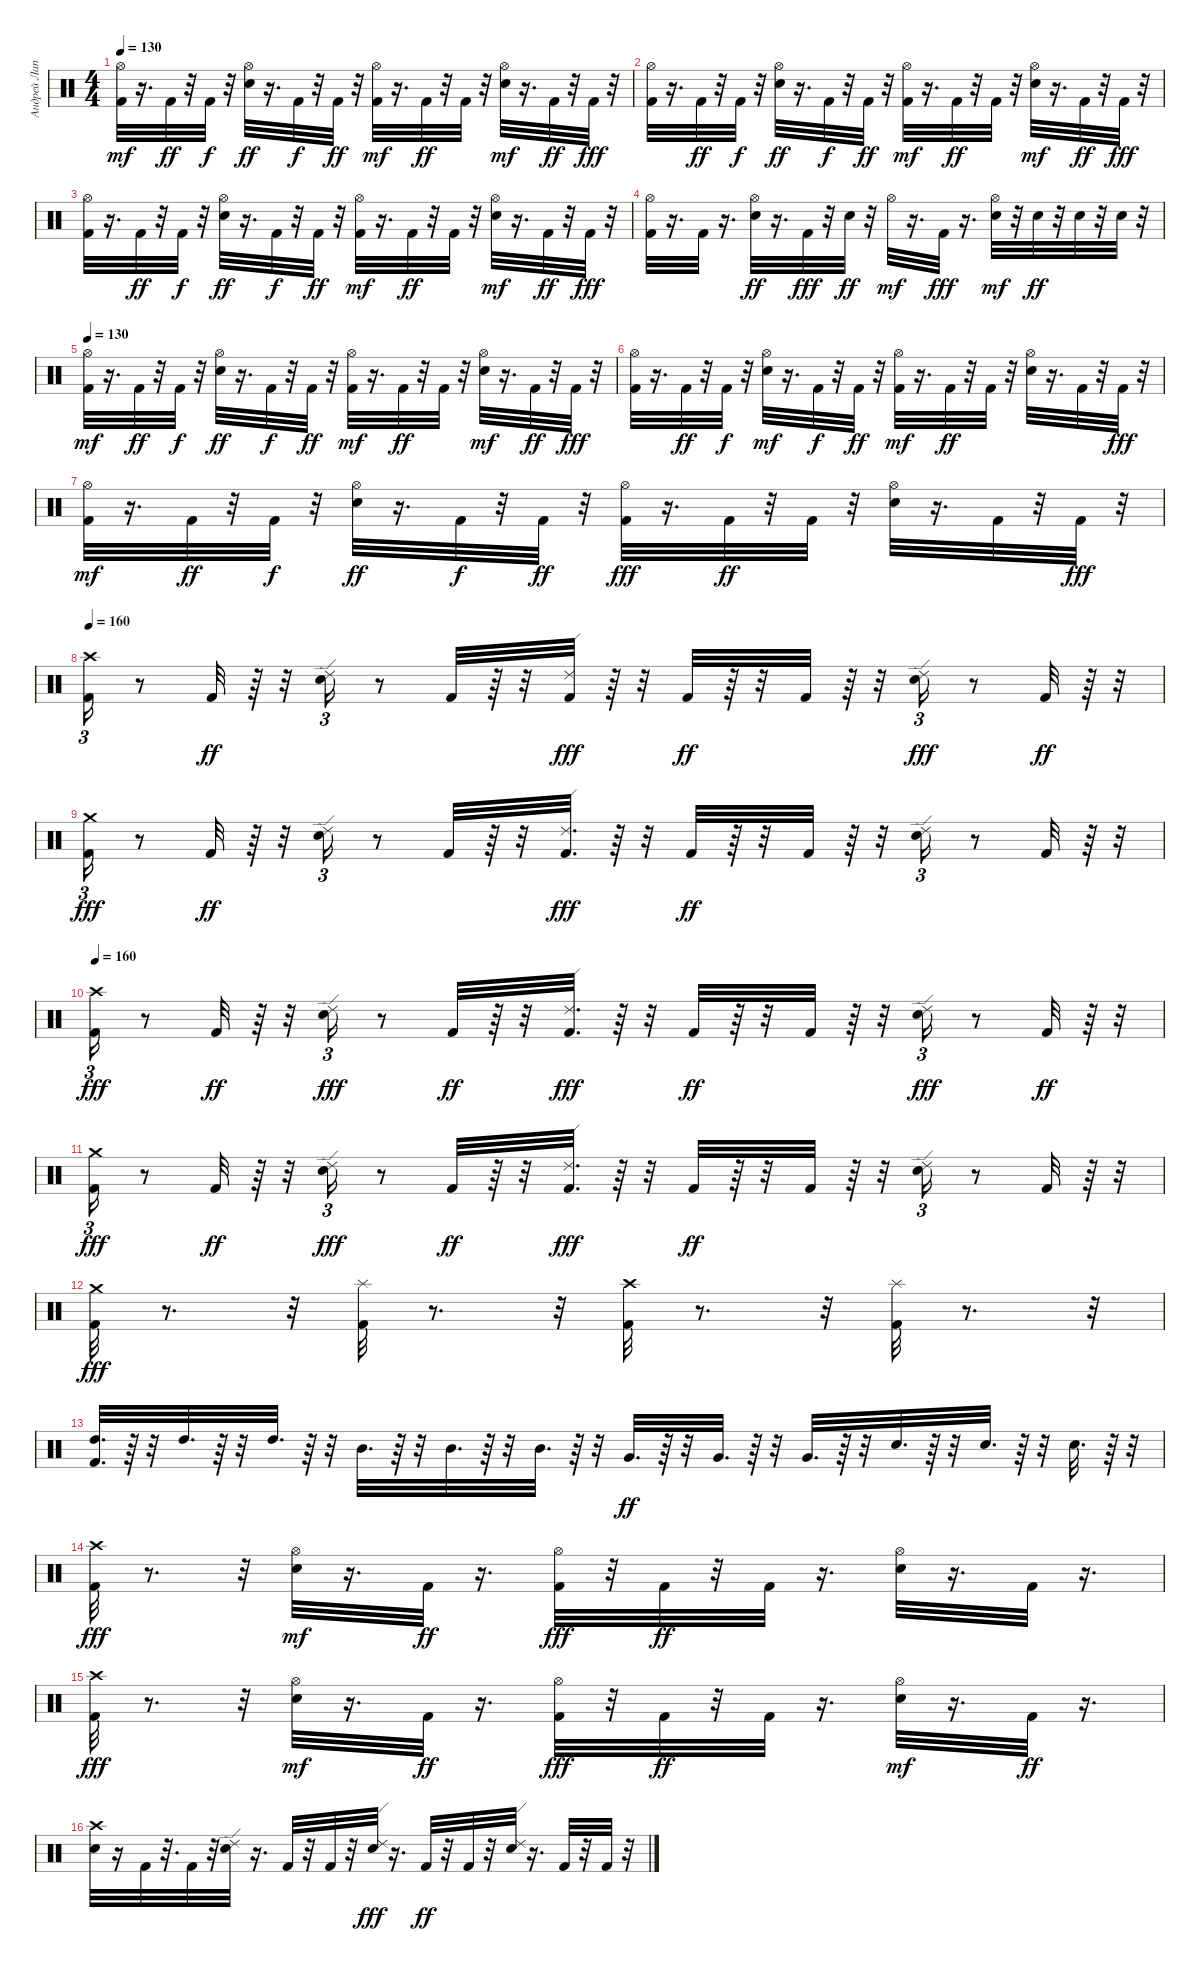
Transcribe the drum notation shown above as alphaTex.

\track ("Андрей Лаптев" "Андрей Лап") {instrument percussion}
\staff {score}
\articulation defaults
\ts (4 4)
\tempo 130
\clef neutral
\ks c
("Kick (hit) 2" "Hi-Hat (open)").32{dy mf} r.16{d} "Kick (hit) 2".32{dy ff} r.32 "Kick (hit) 2".32{dy f} r.32 ("Hi-Hat (open)" "Electric Snare (hit)").32{dy ff} r.16{d} "Kick (hit) 2".32{dy f} r.32 "Kick (hit) 2".32{dy ff} r.32 ("Kick (hit) 2" "Hi-Hat (open)").32{dy mf} r.16{d} "Kick (hit) 2".32{dy ff} r.32 "Kick (hit) 2".32 r.32 ("Electric Snare (hit)" "Hi-Hat (open)").32{dy mf} r.16{d} "Kick (hit) 2".32{dy ff} r.32 "Kick (hit) 2".32{dy fff} r.32 |
("Hi-Hat (open)" "Kick (hit) 2").32 r.16{d} "Kick (hit) 2".32{dy ff} r.32 "Kick (hit) 2".32{dy f} r.32 ("Hi-Hat (open)" "Electric Snare (hit)").32{dy ff} r.16{d} "Kick (hit) 2".32{dy f} r.32 "Kick (hit) 2".32{dy ff} r.32 ("Kick (hit) 2" "Hi-Hat (open)").32{dy mf} r.16{d} "Kick (hit) 2".32{dy ff} r.32 "Kick (hit) 2".32 r.32 ("Electric Snare (hit)" "Hi-Hat (open)").32{dy mf} r.16{d} "Kick (hit) 2".32{dy ff} r.32 "Kick (hit) 2".32{dy fff} r.32 |
("Hi-Hat (open)" "Kick (hit) 2").32 r.16{d} "Kick (hit) 2".32{dy ff} r.32 "Kick (hit) 2".32{dy f} r.32 ("Hi-Hat (open)" "Electric Snare (hit)").32{dy ff} r.16{d} "Kick (hit) 2".32{dy f} r.32 "Kick (hit) 2".32{dy ff} r.32 ("Kick (hit) 2" "Hi-Hat (open)").32{dy mf} r.16{d} "Kick (hit) 2".32{dy ff} r.32 "Kick (hit) 2".32 r.32 ("Electric Snare (hit)" "Hi-Hat (open)").32{dy mf} r.16{d} "Kick (hit) 2".32{dy ff} r.32 "Kick (hit) 2".32{dy fff} r.32 |
("Hi-Hat (open)" "Kick (hit) 2").32 r.16{d} "Kick (hit) 2".32 r.16{d} ("Hi-Hat (open)" "Electric Snare (hit)").32{dy ff} r.16{d} "Kick (hit) 2".32{dy fff} r.32 "Electric Snare (hit)".32{dy ff} r.32 "Hi-Hat (open)".32{dy mf} r.16{d} "Kick (hit) 2".32{dy fff} r.16{d} ("Electric Snare (hit)" "Hi-Hat (open)").32{dy mf} r.32 "Electric Snare (hit)".32{dy ff} r.32 "Electric Snare (hit)".32 r.32 "Electric Snare (hit)".32 r.32 |
\tempo 130
("Kick (hit) 2" "Hi-Hat (open)").32{dy mf} r.16{d} "Kick (hit) 2".32{dy ff} r.32 "Kick (hit) 2".32{dy f} r.32 ("Hi-Hat (open)" "Electric Snare (hit)").32{dy ff} r.16{d} "Kick (hit) 2".32{dy f} r.32 "Kick (hit) 2".32{dy ff} r.32 ("Kick (hit) 2" "Hi-Hat (open)").32{dy mf} r.16{d} "Kick (hit) 2".32{dy ff} r.32 "Kick (hit) 2".32 r.32 ("Electric Snare (hit)" "Hi-Hat (open)").32{dy mf} r.16{d} "Kick (hit) 2".32{dy ff} r.32 "Kick (hit) 2".32{dy fff} r.32 |
("Hi-Hat (open)" "Kick (hit) 2").32 r.16{d} "Kick (hit) 2".32{dy ff} r.32 "Kick (hit) 2".32{dy f} r.32 ("Electric Snare (hit)" "Hi-Hat (open)").32{dy mf} r.16{d} "Kick (hit) 2".32{dy f} r.32 "Kick (hit) 2".32{dy ff} r.32 ("Kick (hit) 2" "Hi-Hat (open)").32{dy mf} r.16{d} "Kick (hit) 2".32{dy ff} r.32 "Kick (hit) 2".32 r.32 ("Hi-Hat (open)" "Electric Snare (hit)").32 r.16{d} "Kick (hit) 2".32 r.32 "Kick (hit) 2".32{dy fff} r.32 |
("Kick (hit) 2" "Hi-Hat (open)").32{dy mf} r.16{d} "Kick (hit) 2".32{dy ff} r.32 "Kick (hit) 2".32{dy f} r.32 ("Hi-Hat (open)" "Electric Snare (hit)").32{dy ff} r.16{d} "Kick (hit) 2".32{dy f} r.32 "Kick (hit) 2".32{dy ff} r.32 ("Hi-Hat (open)" "Kick (hit) 2").32{dy fff} r.16{d} "Kick (hit) 2".32{dy ff} r.32 "Kick (hit) 2".32 r.32 ("Hi-Hat (open)" "Electric Snare (hit)").32 r.16{d} "Kick (hit) 2".32 r.32 "Kick (hit) 2".32{dy fff} r.32 |
\tempo 160
("Kick (hit) 2" "Crash high (hit)").16{tu (3 2)} r.8 "Kick (hit) 2".32{dy ff} r.64 r.32 ("Ride (edge) 2" "Electric Snare (hit)").16{tu (3 2)} r.8 "Kick (hit) 2".32 r.64 r.32 ("Kick (hit) 2" "Ride (edge) 2").32{dy fff} r.64 r.32 "Kick (hit) 2".32{dy ff} r.64 r.32 "Kick (hit) 2".32 r.64 r.32 ("Electric Snare (hit)" "Ride (edge) 2").16{tu (3 2) dy fff} r.8 "Kick (hit) 2".32{dy ff} r.64 r.32 |
("Crash medium (hit)" "Kick (hit) 2").16{tu (3 2) dy fff} r.8 "Kick (hit) 2".32{dy ff} r.64 r.32 ("Ride (edge) 2" "Electric Snare (hit)").16{tu (3 2)} r.8 "Kick (hit) 2".32 r.64 r.32 ("Ride (edge) 2" "Kick (hit) 2").32{d dy fff} r.64 r.32 "Kick (hit) 2".32{dy ff} r.64 r.32 "Kick (hit) 2".32 r.64 r.32 ("Ride (edge) 2" "Electric Snare (hit)").16{tu (3 2)} r.8 "Kick (hit) 2".32 r.64 r.32 |
\tempo 160
("Crash high (hit)" "Kick (hit) 2").16{tu (3 2) dy fff} r.8 "Kick (hit) 2".32{dy ff} r.64 r.32 ("Electric Snare (hit)" "Ride (edge) 2").16{tu (3 2) dy fff} r.8 "Kick (hit) 2".32{dy ff} r.64 r.32 ("Ride (edge) 2" "Kick (hit) 2").32{d dy fff} r.64 r.32 "Kick (hit) 2".32{dy ff} r.64 r.32 "Kick (hit) 2".32 r.64 r.32 ("Electric Snare (hit)" "Ride (edge) 2").16{tu (3 2) dy fff} r.8 "Kick (hit) 2".32{dy ff} r.64 r.32 |
("Crash medium (hit)" "Kick (hit) 2").16{tu (3 2) dy fff} r.8 "Kick (hit) 2".32{dy ff} r.64 r.32 ("Electric Snare (hit)" "Ride (edge) 2").16{tu (3 2) dy fff} r.8 "Kick (hit) 2".32{dy ff} r.64 r.32 ("Ride (edge) 2" "Kick (hit) 2").32{d dy fff} r.64 r.32 "Kick (hit) 2".32{dy ff} r.64 r.32 "Kick (hit) 2".32 r.64 r.32 ("Ride (edge) 2" "Electric Snare (hit)").16{tu (3 2)} r.8 "Kick (hit) 2".32 r.64 r.32 |
("Kick (hit) 2" "Crash medium (hit)").32{dy fff} r.8{d} r.32 ("Splash (hit)" "Kick (hit) 2").32 r.8{d} r.32 ("Kick (hit) 2" "Crash high (hit)").32 r.8{d} r.32 ("Splash (hit)" "Kick (hit) 2").32 r.8{d} r.32 |
("High Tom (hit)" "Kick (hit) 2").32{d} r.64 r.32 "High Tom (hit)".32{d} r.64 r.32 "High Tom (hit)".32{d} r.64 r.32 "Mid Tom (hit)".32{d} r.64 r.32 "Mid Tom (hit)".32{d} r.64 r.32 "Mid Tom (hit)".32{d} r.64 r.32 "Very Low Tom (hit)".32{d dy ff} r.64 r.32 "Very Low Tom (hit)".32{d} r.64 r.32 "Very Low Tom (hit)".32{d} r.64 r.32 "Electric Snare (hit)".32{d} r.64 r.32 "Electric Snare (hit)".32{d} r.64 r.32 "Electric Snare (hit)".32{d} r.64 r.32 |
("Crash high (hit)" "Kick (hit) 2").32{dy fff} r.8{d} r.32 ("Electric Snare (hit)" "Hi-Hat (open)").32{dy mf} r.16{d} "Kick (hit) 2".32{dy ff} r.16{d} ("Hi-Hat (open)" "Kick (hit) 2").32{dy fff} r.32 "Kick (hit) 2".32{dy ff} r.32 "Kick (hit) 2".32 r.16{d} ("Hi-Hat (open)" "Electric Snare (hit)").32 r.16{d} "Kick (hit) 2".32 r.16{d} |
("Crash high (hit)" "Kick (hit) 2").32{dy fff} r.8{d} r.32 ("Electric Snare (hit)" "Hi-Hat (open)").32{dy mf} r.16{d} "Kick (hit) 2".32{dy ff} r.16{d} ("Hi-Hat (open)" "Kick (hit) 2").32{dy fff} r.32 "Kick (hit) 2".32{dy ff} r.32 "Kick (hit) 2".32 r.16{d} ("Electric Snare (hit)" "Hi-Hat (open)").32{dy mf} r.16{d} "Kick (hit) 2".32{dy ff} r.16{d} |
("Electric Snare (hit)" "Crash high (hit)").32 r.16 "Kick (hit) 2".32 r.32{d} "Kick (hit) 2".32 r.32 ("Ride (edge) 2" "Electric Snare (hit)").32 r.16{d} "Kick (hit) 2".32 r.32 "Kick (hit) 2".32 r.32 ("Electric Snare (hit)" "Ride (edge) 2").32{dy fff} r.16{d} "Kick (hit) 2".32{dy ff} r.32 "Kick (hit) 2".32 r.32 ("Ride (edge) 2" "Electric Snare (hit)").32 r.16{d} "Kick (hit) 2".32 r.32 "Kick (hit) 2".32 r.32
